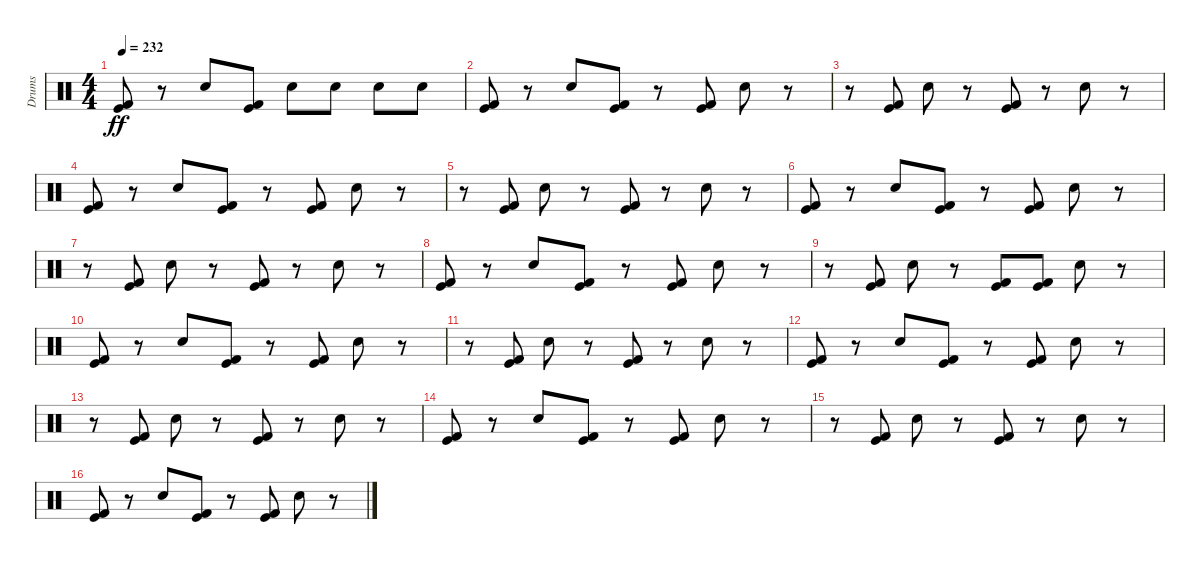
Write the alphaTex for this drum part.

\track ("Drums" "Drums") {instrument percussion}
\staff {score}
\articulation defaults
\ts (4 4)
\tempo 232
\clef neutral
\ks c
("Kick (hit)" "Kick (hit) 2").8{dy ff} r.8 "Snare (hit) 2".8 ("Kick (hit)" "Kick (hit) 2").8 "Snare (hit) 2".8 "Snare (hit) 2".8 "Snare (hit) 2".8 "Snare (hit) 2".8 |
("Kick (hit)" "Kick (hit) 2").8 r.8 "Snare (hit) 2".8 ("Kick (hit)" "Kick (hit) 2").8 r.8 ("Kick (hit)" "Kick (hit) 2").8 "Snare (hit) 2".8 r.8 |
r.8 ("Kick (hit)" "Kick (hit) 2").8 "Snare (hit) 2".8 r.8 ("Kick (hit)" "Kick (hit) 2").8 r.8 "Snare (hit) 2".8 r.8 |
("Kick (hit)" "Kick (hit) 2").8 r.8 "Snare (hit) 2".8 ("Kick (hit)" "Kick (hit) 2").8 r.8 ("Kick (hit)" "Kick (hit) 2").8 "Snare (hit) 2".8 r.8 |
r.8 ("Kick (hit)" "Kick (hit) 2").8 "Snare (hit) 2".8 r.8 ("Kick (hit)" "Kick (hit) 2").8 r.8 "Snare (hit) 2".8 r.8 |
("Kick (hit)" "Kick (hit) 2").8 r.8 "Snare (hit) 2".8 ("Kick (hit)" "Kick (hit) 2").8 r.8 ("Kick (hit)" "Kick (hit) 2").8 "Snare (hit) 2".8 r.8 |
r.8 ("Kick (hit)" "Kick (hit) 2").8 "Snare (hit) 2".8 r.8 ("Kick (hit)" "Kick (hit) 2").8 r.8 "Snare (hit) 2".8 r.8 |
("Kick (hit)" "Kick (hit) 2").8 r.8 "Snare (hit) 2".8 ("Kick (hit)" "Kick (hit) 2").8 r.8 ("Kick (hit)" "Kick (hit) 2").8 "Snare (hit) 2".8 r.8 |
r.8 ("Kick (hit)" "Kick (hit) 2").8 "Snare (hit) 2".8 r.8 ("Kick (hit)" "Kick (hit) 2").8 ("Kick (hit)" "Kick (hit) 2").8 "Snare (hit) 2".8 r.8 |
("Kick (hit)" "Kick (hit) 2").8 r.8 "Snare (hit) 2".8 ("Kick (hit)" "Kick (hit) 2").8 r.8 ("Kick (hit)" "Kick (hit) 2").8 "Snare (hit) 2".8 r.8 |
r.8 ("Kick (hit)" "Kick (hit) 2").8 "Snare (hit) 2".8 r.8 ("Kick (hit)" "Kick (hit) 2").8 r.8 "Snare (hit) 2".8 r.8 |
("Kick (hit)" "Kick (hit) 2").8 r.8 "Snare (hit) 2".8 ("Kick (hit)" "Kick (hit) 2").8 r.8 ("Kick (hit)" "Kick (hit) 2").8 "Snare (hit) 2".8 r.8 |
r.8 ("Kick (hit)" "Kick (hit) 2").8 "Snare (hit) 2".8 r.8 ("Kick (hit)" "Kick (hit) 2").8 r.8 "Snare (hit) 2".8 r.8 |
("Kick (hit)" "Kick (hit) 2").8 r.8 "Snare (hit) 2".8 ("Kick (hit)" "Kick (hit) 2").8 r.8 ("Kick (hit)" "Kick (hit) 2").8 "Snare (hit) 2".8 r.8 |
r.8 ("Kick (hit)" "Kick (hit) 2").8 "Snare (hit) 2".8 r.8 ("Kick (hit)" "Kick (hit) 2").8 r.8 "Snare (hit) 2".8 r.8 |
("Kick (hit)" "Kick (hit) 2").8 r.8 "Snare (hit) 2".8 ("Kick (hit)" "Kick (hit) 2").8 r.8 ("Kick (hit)" "Kick (hit) 2").8 "Snare (hit) 2".8 r.8
